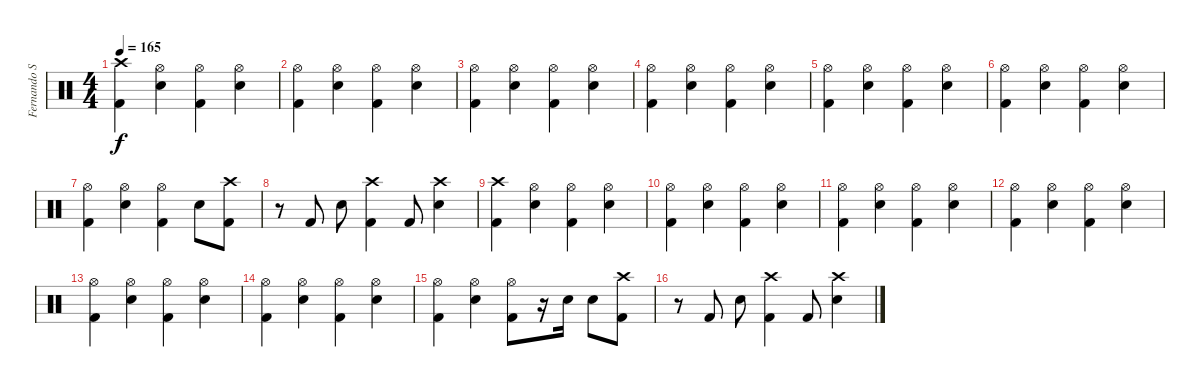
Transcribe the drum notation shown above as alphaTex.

\track ("Fernando Scarcella" "Fernando S") {instrument percussion}
\staff {score}
\articulation defaults
\ts (4 4)
\tempo 165
\clef neutral
\ks c
("Crash high (hit)" "Kick (hit) 2").4{dy f} ("Hi-Hat (open)" "Snare (hit) 2").4 ("Hi-Hat (open)" "Kick (hit) 2").4 ("Hi-Hat (open)" "Snare (hit) 2").4 |
("Hi-Hat (open)" "Kick (hit) 2").4 ("Hi-Hat (open)" "Snare (hit) 2").4 ("Hi-Hat (open)" "Kick (hit) 2").4 ("Hi-Hat (open)" "Snare (hit) 2").4 |
("Hi-Hat (open)" "Kick (hit) 2").4 ("Hi-Hat (open)" "Snare (hit) 2").4 ("Hi-Hat (open)" "Kick (hit) 2").4 ("Hi-Hat (open)" "Snare (hit) 2").4 |
("Hi-Hat (open)" "Kick (hit) 2").4 ("Hi-Hat (open)" "Snare (hit) 2").4 ("Hi-Hat (open)" "Kick (hit) 2").4 ("Hi-Hat (open)" "Snare (hit) 2").4 |
("Hi-Hat (open)" "Kick (hit) 2").4 ("Hi-Hat (open)" "Snare (hit) 2").4 ("Hi-Hat (open)" "Kick (hit) 2").4 ("Hi-Hat (open)" "Snare (hit) 2").4 |
("Hi-Hat (open)" "Kick (hit) 2").4 ("Hi-Hat (open)" "Snare (hit) 2").4 ("Hi-Hat (open)" "Kick (hit) 2").4 ("Hi-Hat (open)" "Snare (hit) 2").4 |
("Hi-Hat (open)" "Kick (hit) 2").4 ("Hi-Hat (open)" "Snare (hit) 2").4 ("Hi-Hat (open)" "Kick (hit) 2").4 "Snare (hit) 2".8 ("Crash high (hit)" "Kick (hit) 2").8 |
r.8 "Kick (hit) 2".8 "Snare (hit) 2".8 ("Crash high (hit)" "Kick (hit) 2").4 "Kick (hit) 2".8 ("Crash high (hit)" "Snare (hit) 2").4 |
("Crash high (hit)" "Kick (hit) 2").4 ("Hi-Hat (open)" "Snare (hit) 2").4 ("Hi-Hat (open)" "Kick (hit) 2").4 ("Hi-Hat (open)" "Snare (hit) 2").4 |
("Hi-Hat (open)" "Kick (hit) 2").4 ("Hi-Hat (open)" "Snare (hit) 2").4 ("Hi-Hat (open)" "Kick (hit) 2").4 ("Hi-Hat (open)" "Snare (hit) 2").4 |
("Hi-Hat (open)" "Kick (hit) 2").4 ("Hi-Hat (open)" "Snare (hit) 2").4 ("Hi-Hat (open)" "Kick (hit) 2").4 ("Hi-Hat (open)" "Snare (hit) 2").4 |
("Hi-Hat (open)" "Kick (hit) 2").4 ("Hi-Hat (open)" "Snare (hit) 2").4 ("Hi-Hat (open)" "Kick (hit) 2").4 ("Hi-Hat (open)" "Snare (hit) 2").4 |
("Hi-Hat (open)" "Kick (hit) 2").4 ("Hi-Hat (open)" "Snare (hit) 2").4 ("Hi-Hat (open)" "Kick (hit) 2").4 ("Hi-Hat (open)" "Snare (hit) 2").4 |
("Hi-Hat (open)" "Kick (hit) 2").4 ("Hi-Hat (open)" "Snare (hit) 2").4 ("Hi-Hat (open)" "Kick (hit) 2").4 ("Hi-Hat (open)" "Snare (hit) 2").4 |
("Hi-Hat (open)" "Kick (hit) 2").4 ("Hi-Hat (open)" "Snare (hit) 2").4 ("Hi-Hat (open)" "Kick (hit) 2").8 r.16 "Snare (hit) 2".16 "Snare (hit) 2".8 ("Crash high (hit)" "Kick (hit) 2").8 |
r.8 "Kick (hit) 2".8 "Snare (hit) 2".8 ("Crash high (hit)" "Kick (hit) 2").4 "Kick (hit) 2".8 ("Crash high (hit)" "Snare (hit) 2").4
